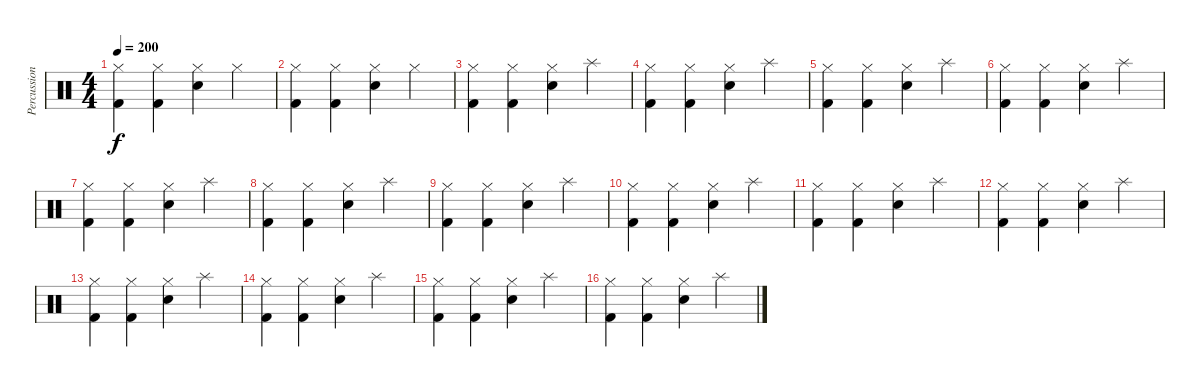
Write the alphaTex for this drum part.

\track ("Percussion" "Percussion") {instrument percussion}
\staff {score}
\articulation defaults
\ts (4 4)
\tempo 200
\clef neutral
\ks c
("Kick (hit) 2" "Hi-Hat (closed)").4{dy f} ("Kick (hit) 2" "Hi-Hat (closed)").4 ("Snare (hit) 2" "Hi-Hat (closed)").4 "Hi-Hat (closed)".4 |
("Kick (hit) 2" "Hi-Hat (closed)").4 ("Kick (hit) 2" "Hi-Hat (closed)").4 ("Snare (hit) 2" "Hi-Hat (closed)").4 "Hi-Hat (closed)".4 |
("Kick (hit) 2" "Hi-Hat (closed)").4 ("Kick (hit) 2" "Hi-Hat (closed)").4 ("Snare (hit) 2" "Hi-Hat (closed)").4 "Splash (hit)".4 |
("Kick (hit) 2" "Hi-Hat (closed)").4 ("Kick (hit) 2" "Hi-Hat (closed)").4 ("Snare (hit) 2" "Hi-Hat (closed)").4 "Splash (hit)".4 |
("Kick (hit) 2" "Hi-Hat (closed)").4 ("Kick (hit) 2" "Hi-Hat (closed)").4 ("Snare (hit) 2" "Hi-Hat (closed)").4 "Splash (hit)".4 |
("Kick (hit) 2" "Hi-Hat (closed)").4 ("Kick (hit) 2" "Hi-Hat (closed)").4 ("Snare (hit) 2" "Hi-Hat (closed)").4 "Splash (hit)".4 |
("Kick (hit) 2" "Hi-Hat (closed)").4 ("Kick (hit) 2" "Hi-Hat (closed)").4 ("Snare (hit) 2" "Hi-Hat (closed)").4 "Splash (hit)".4 |
("Kick (hit) 2" "Hi-Hat (closed)").4 ("Kick (hit) 2" "Hi-Hat (closed)").4 ("Snare (hit) 2" "Hi-Hat (closed)").4 "Splash (hit)".4 |
("Kick (hit) 2" "Hi-Hat (closed)").4 ("Kick (hit) 2" "Hi-Hat (closed)").4 ("Snare (hit) 2" "Hi-Hat (closed)").4 "Splash (hit)".4 |
("Kick (hit) 2" "Hi-Hat (closed)").4 ("Kick (hit) 2" "Hi-Hat (closed)").4 ("Snare (hit) 2" "Hi-Hat (closed)").4 "Splash (hit)".4 |
("Kick (hit) 2" "Hi-Hat (closed)").4 ("Kick (hit) 2" "Hi-Hat (closed)").4 ("Snare (hit) 2" "Hi-Hat (closed)").4 "Splash (hit)".4 |
("Kick (hit) 2" "Hi-Hat (closed)").4 ("Kick (hit) 2" "Hi-Hat (closed)").4 ("Snare (hit) 2" "Hi-Hat (closed)").4 "Splash (hit)".4 |
("Kick (hit) 2" "Hi-Hat (closed)").4 ("Kick (hit) 2" "Hi-Hat (closed)").4 ("Snare (hit) 2" "Hi-Hat (closed)").4 "Splash (hit)".4 |
("Kick (hit) 2" "Hi-Hat (closed)").4 ("Kick (hit) 2" "Hi-Hat (closed)").4 ("Snare (hit) 2" "Hi-Hat (closed)").4 "Splash (hit)".4 |
("Kick (hit) 2" "Hi-Hat (closed)").4 ("Kick (hit) 2" "Hi-Hat (closed)").4 ("Snare (hit) 2" "Hi-Hat (closed)").4 "Splash (hit)".4 |
("Kick (hit) 2" "Hi-Hat (closed)").4 ("Kick (hit) 2" "Hi-Hat (closed)").4 ("Snare (hit) 2" "Hi-Hat (closed)").4 "Splash (hit)".4
